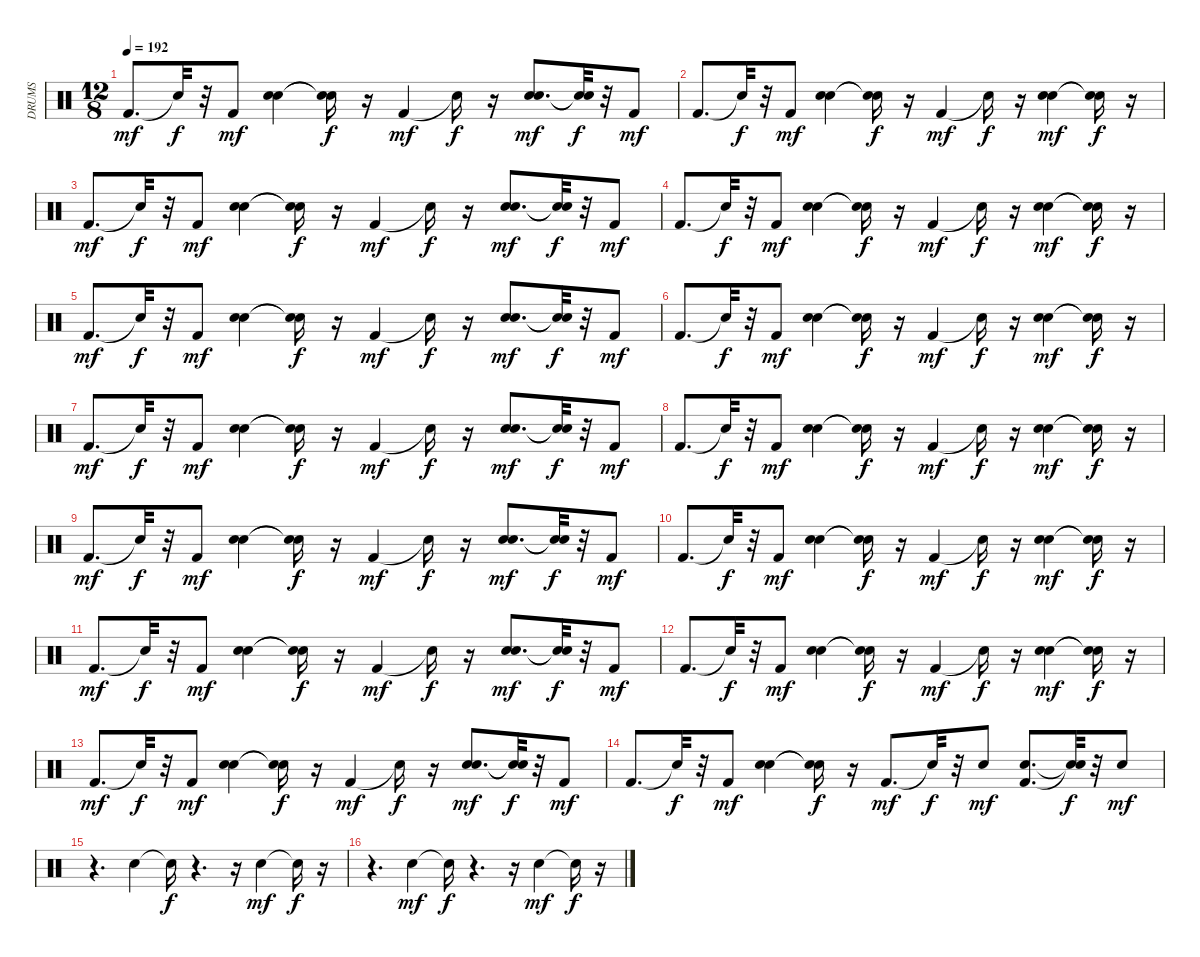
\track ("DRUMS" "DRUMS") {instrument percussion}
\staff {score}
\articulation defaults
\ts (12 8)
\tempo 192
\clef neutral
\ks c "Kick (hit) 2".8{d dy mf} "Snare (hit)"{t}.32{dy f}
r.32 "Kick (hit) 2".8{dy mf} ("Snare (hit) 2" "Hand Clap (hit)").4 ("Snare (hit)"{t} "Snare (hit)"{t}).16{dy f} r.16 "Kick (hit) 2".4{dy mf} "Snare (hit)"{t}.16{dy f} r.16 ("Snare (hit) 2" "Hand Clap (hit)").8{d dy mf} ("Snare (hit)"{t} "Snare (hit)"{t}).32{dy f} r.32 "Kick (hit) 2".8{dy mf} |
"Kick (hit) 2".8{d} "Snare (hit)"{t}.32{dy f} r.32 "Kick (hit) 2".8{dy mf} ("Snare (hit) 2" "Hand Clap (hit)").4 ("Snare (hit)"{t} "Snare (hit)"{t}).16{dy f} r.16 "Kick (hit) 2".4{dy mf} "Snare (hit)"{t}.16{dy f} r.16 ("Snare (hit) 2" "Hand Clap (hit)").4{dy mf} ("Snare (hit)"{t} "Snare (hit)"{t}).16{dy f} r.16 |
"Kick (hit) 2".8{d dy mf} "Snare (hit)"{t}.32{dy f} r.32 "Kick (hit) 2".8{dy mf} ("Hand Clap (hit)" "Snare (hit) 2").4 ("Snare (hit)"{t} "Snare (hit)"{t}).16{dy f} r.16 "Kick (hit) 2".4{dy mf} "Snare (hit)"{t}.16{dy f} r.16 ("Hand Clap (hit)" "Snare (hit) 2").8{d dy mf} ("Snare (hit)"{t} "Snare (hit)"{t}).32{dy f} r.32 "Kick (hit) 2".8{dy mf} |
"Kick (hit) 2".8{d} "Snare (hit)"{t}.32{dy f} r.32 "Kick (hit) 2".8{dy mf} ("Hand Clap (hit)" "Snare (hit) 2").4 ("Snare (hit)"{t} "Snare (hit)"{t}).16{dy f} r.16 "Kick (hit) 2".4{dy mf} "Snare (hit)"{t}.16{dy f} r.16 ("Hand Clap (hit)" "Snare (hit) 2").4{dy mf} ("Snare (hit)"{t} "Snare (hit)"{t}).16{dy f} r.16 |
"Kick (hit) 2".8{d dy mf} "Snare (hit)"{t}.32{dy f} r.32 "Kick (hit) 2".8{dy mf} ("Hand Clap (hit)" "Snare (hit) 2").4 ("Snare (hit)"{t} "Snare (hit)"{t}).16{dy f} r.16 "Kick (hit) 2".4{dy mf} "Snare (hit)"{t}.16{dy f} r.16 ("Hand Clap (hit)" "Snare (hit) 2").8{d dy mf} ("Snare (hit)"{t} "Snare (hit)"{t}).32{dy f} r.32 "Kick (hit) 2".8{dy mf} |
"Kick (hit) 2".8{d} "Snare (hit)"{t}.32{dy f} r.32 "Kick (hit) 2".8{dy mf} ("Hand Clap (hit)" "Snare (hit) 2").4 ("Snare (hit)"{t} "Snare (hit)"{t}).16{dy f} r.16 "Kick (hit) 2".4{dy mf} "Snare (hit)"{t}.16{dy f} r.16 ("Hand Clap (hit)" "Snare (hit) 2").4{dy mf} ("Snare (hit)"{t} "Snare (hit)"{t}).16{dy f} r.16 |
"Kick (hit) 2".8{d dy mf} "Snare (hit)"{t}.32{dy f} r.32 "Kick (hit) 2".8{dy mf} ("Hand Clap (hit)" "Snare (hit) 2").4 ("Snare (hit)"{t} "Snare (hit)"{t}).16{dy f} r.16 "Kick (hit) 2".4{dy mf} "Snare (hit)"{t}.16{dy f} r.16 ("Hand Clap (hit)" "Snare (hit) 2").8{d dy mf} ("Snare (hit)"{t} "Snare (hit)"{t}).32{dy f} r.32 "Kick (hit) 2".8{dy mf} |
"Kick (hit) 2".8{d} "Snare (hit)"{t}.32{dy f} r.32 "Kick (hit) 2".8{dy mf} ("Hand Clap (hit)" "Snare (hit) 2").4 ("Snare (hit)"{t} "Snare (hit)"{t}).16{dy f} r.16 "Kick (hit) 2".4{dy mf} "Snare (hit)"{t}.16{dy f} r.16 ("Hand Clap (hit)" "Snare (hit) 2").4{dy mf} ("Snare (hit)"{t} "Snare (hit)"{t}).16{dy f} r.16 |
"Kick (hit) 2".8{d dy mf} "Snare (hit)"{t}.32{dy f} r.32 "Kick (hit) 2".8{dy mf} ("Hand Clap (hit)" "Snare (hit) 2").4 ("Snare (hit)"{t} "Snare (hit)"{t}).16{dy f} r.16 "Kick (hit) 2".4{dy mf} "Snare (hit)"{t}.16{dy f} r.16 ("Hand Clap (hit)" "Snare (hit) 2").8{d dy mf} ("Snare (hit)"{t} "Snare (hit)"{t}).32{dy f} r.32 "Kick (hit) 2".8{dy mf} |
"Kick (hit) 2".8{d} "Snare (hit)"{t}.32{dy f} r.32 "Kick (hit) 2".8{dy mf} ("Hand Clap (hit)" "Snare (hit) 2").4 ("Snare (hit)"{t} "Snare (hit)"{t}).16{dy f} r.16 "Kick (hit) 2".4{dy mf} "Snare (hit)"{t}.16{dy f} r.16 ("Hand Clap (hit)" "Snare (hit) 2").4{dy mf} ("Snare (hit)"{t} "Snare (hit)"{t}).16{dy f} r.16 |
"Kick (hit) 2".8{d dy mf} "Snare (hit)"{t}.32{dy f} r.32 "Kick (hit) 2".8{dy mf} ("Snare (hit) 2" "Hand Clap (hit)").4 ("Snare (hit)"{t} "Snare (hit)"{t}).16{dy f} r.16 "Kick (hit) 2".4{dy mf} "Snare (hit)"{t}.16{dy f} r.16 ("Snare (hit) 2" "Hand Clap (hit)").8{d dy mf} ("Snare (hit)"{t} "Snare (hit)"{t}).32{dy f} r.32 "Kick (hit) 2".8{dy mf} |
"Kick (hit) 2".8{d} "Snare (hit)"{t}.32{dy f} r.32 "Kick (hit) 2".8{dy mf} ("Snare (hit) 2" "Hand Clap (hit)").4 ("Snare (hit)"{t} "Snare (hit)"{t}).16{dy f} r.16 "Kick (hit) 2".4{dy mf} "Snare (hit)"{t}.16{dy f} r.16 ("Snare (hit) 2" "Hand Clap (hit)").4{dy mf} ("Snare (hit)"{t} "Snare (hit)"{t}).16{dy f} r.16 |
"Kick (hit) 2".8{d dy mf} "Snare (hit)"{t}.32{dy f} r.32 "Kick (hit) 2".8{dy mf} ("Snare (hit) 2" "Hand Clap (hit)").4 ("Snare (hit)"{t} "Snare (hit)"{t}).16{dy f} r.16 "Kick (hit) 2".4{dy mf} "Snare (hit)"{t}.16{dy f} r.16 ("Snare (hit) 2" "Hand Clap (hit)").8{d dy mf} ("Snare (hit)"{t} "Snare (hit)"{t}).32{dy f} r.32 "Kick (hit) 2".8{dy mf} |
"Kick (hit) 2".8{d} "Snare (hit)"{t}.32{dy f} r.32 "Kick (hit) 2".8{dy mf} ("Snare (hit) 2" "Hand Clap (hit)").4 ("Snare (hit)"{t} "Snare (hit)"{t}).16{dy f} r.16 "Kick (hit) 2".8{d dy mf} "Snare (hit)"{t}.32{dy f} r.32 "Snare (hit) 2".8{dy mf} ("Kick (hit) 2" "Snare (hit) 2").8{d} ("Snare (hit)"{t} "Snare (hit)"{t}).32{dy f} r.32 "Snare (hit) 2".8{dy mf} |
r.4{d} "Hand Clap (hit)".4 "Snare (hit)"{t}.16{dy f} r.4{d} r.16 "Hand Clap (hit)".4{dy mf} "Snare (hit)"{t}.16{dy f} r.16 |
r.4{d} "Hand Clap (hit)".4{dy mf} "Snare (hit)"{t}.16{dy f} r.4{d} r.16 "Hand Clap (hit)".4{dy mf} "Snare (hit)"{t}.16{dy f} r.16
